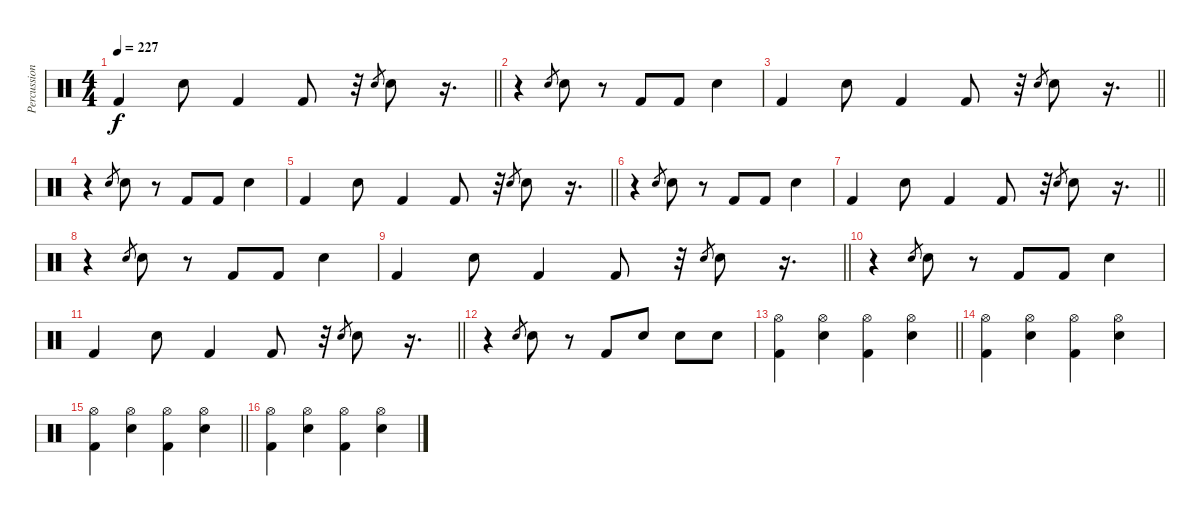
\track ("Percussion" "Percussion") {instrument percussion}
\staff {score}
\articulation defaults
\ts (4 4)
\tempo 227
\clef neutral
\barLineRight lightlight
\ks c "Kick (hit) 2".4{dy f} "Snare (hit) 2".8 "Kick (hit) 2".4 "Kick (hit) 2".8
r.32 "Snare (hit) 2".8{gr} "Snare (hit) 2".8 r.16{d} |
r.4 "Snare (hit) 2".8{gr} "Snare (hit) 2".8 r.8 "Kick (hit) 2".8 "Kick (hit) 2".8 "Snare (hit) 2".4 |
\barLineRight lightlight "Kick (hit) 2".4 "Snare (hit) 2".8 "Kick (hit) 2".4 "Kick (hit) 2".8
r.32 "Snare (hit) 2".8{gr} "Snare (hit) 2".8 r.16{d} |
r.4 "Snare (hit) 2".8{gr} "Snare (hit) 2".8 r.8 "Kick (hit) 2".8 "Kick (hit) 2".8 "Snare (hit) 2".4 |
\barLineRight lightlight "Kick (hit) 2".4 "Snare (hit) 2".8 "Kick (hit) 2".4 "Kick (hit) 2".8
r.32 "Snare (hit) 2".8{gr} "Snare (hit) 2".8 r.16{d} |
r.4 "Snare (hit) 2".8{gr} "Snare (hit) 2".8 r.8 "Kick (hit) 2".8 "Kick (hit) 2".8 "Snare (hit) 2".4 |
\barLineRight lightlight "Kick (hit) 2".4 "Snare (hit) 2".8 "Kick (hit) 2".4 "Kick (hit) 2".8
r.32 "Snare (hit) 2".8{gr} "Snare (hit) 2".8 r.16{d} |
r.4 "Snare (hit) 2".8{gr} "Snare (hit) 2".8 r.8 "Kick (hit) 2".8 "Kick (hit) 2".8 "Snare (hit) 2".4 |
\barLineRight lightlight "Kick (hit) 2".4 "Snare (hit) 2".8 "Kick (hit) 2".4 "Kick (hit) 2".8
r.32 "Snare (hit) 2".8{gr} "Snare (hit) 2".8 r.16{d} |
r.4 "Snare (hit) 2".8{gr} "Snare (hit) 2".8 r.8 "Kick (hit) 2".8 "Kick (hit) 2".8 "Snare (hit) 2".4 |
\barLineRight lightlight "Kick (hit) 2".4 "Snare (hit) 2".8 "Kick (hit) 2".4 "Kick (hit) 2".8
r.32 "Snare (hit) 2".8{gr} "Snare (hit) 2".8 r.16{d} |
r.4 "Snare (hit) 2".8{gr} "Snare (hit) 2".8 r.8 "Kick (hit) 2".8 "Snare (hit) 2".8 "Snare (hit) 2".8 "Snare (hit) 2".8 |
\barLineRight lightlight
("Hi-Hat (open)" "Kick (hit) 2").4 ("Hi-Hat (open)" "Snare (hit) 2").4 ("Hi-Hat (open)" "Kick (hit) 2").4 ("Hi-Hat (open)" "Snare (hit) 2").4 |
("Hi-Hat (open)" "Kick (hit) 2").4 ("Hi-Hat (open)" "Snare (hit) 2").4 ("Hi-Hat (open)" "Kick (hit) 2").4 ("Hi-Hat (open)" "Snare (hit) 2").4 |
\barLineRight lightlight
("Hi-Hat (open)" "Kick (hit) 2").4 ("Hi-Hat (open)" "Snare (hit) 2").4 ("Hi-Hat (open)" "Kick (hit) 2").4 ("Hi-Hat (open)" "Snare (hit) 2").4 |
("Hi-Hat (open)" "Kick (hit) 2").4 ("Hi-Hat (open)" "Snare (hit) 2").4 ("Hi-Hat (open)" "Kick (hit) 2").4 ("Hi-Hat (open)" "Snare (hit) 2").4
